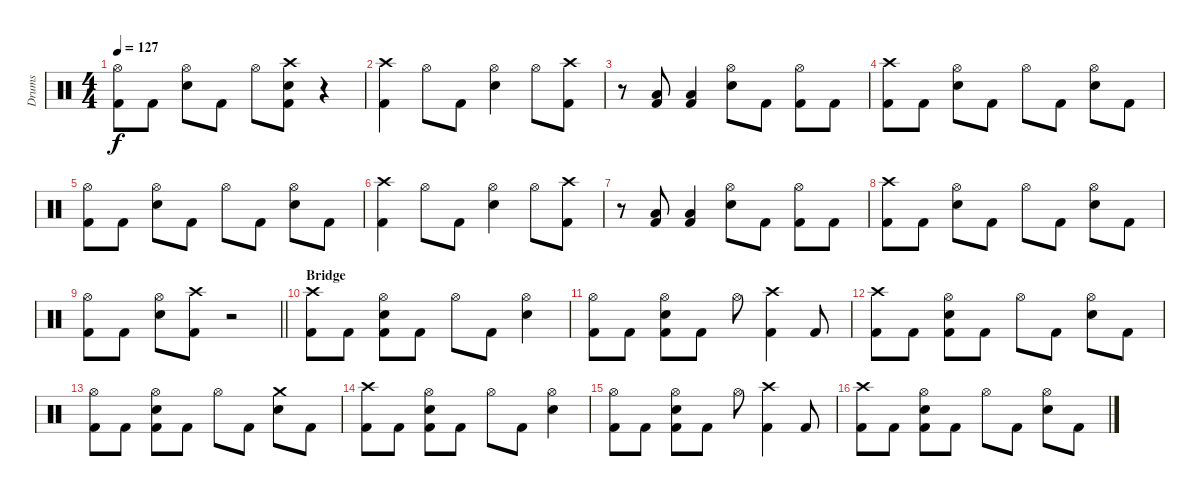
\track ("Drums" "Drums") {instrument percussion}
\staff {score}
\articulation defaults
\ts (4 4)
\tempo 127
\clef neutral
\ks c
("Hi-Hat (open)" "Kick (hit) 2").8{dy f} "Kick (hit) 2".8 ("Hi-Hat (open)" "Electric Snare (hit)").8 "Kick (hit) 2".8 "Hi-Hat (open)".8 ("Crash high (hit)" "Electric Snare (hit)" "Kick (hit) 2").8 r.4 |
("Crash high (hit)" "Kick (hit) 2").4 "Hi-Hat (open)".8 "Kick (hit) 2".8 ("Hi-Hat (open)" "Electric Snare (hit)").4 "Hi-Hat (open)".8 ("Crash high (hit)" "Kick (hit) 2").8 |
r.8 ("Low Floor Tom (hit)" "Kick (hit) 2").8 ("Low Floor Tom (hit)" "Kick (hit) 2").4 ("Hi-Hat (open)" "Electric Snare (hit)").8 "Kick (hit) 2".8 ("Hi-Hat (open)" "Kick (hit) 2").8 "Kick (hit) 2".8 |
("Crash high (hit)" "Kick (hit) 2").8 "Kick (hit) 2".8 ("Hi-Hat (open)" "Electric Snare (hit)").8 "Kick (hit) 2".8 "Hi-Hat (open)".8 "Kick (hit) 2".8 ("Hi-Hat (open)" "Electric Snare (hit)").8 "Kick (hit) 2".8 |
("Hi-Hat (open)" "Kick (hit) 2").8 "Kick (hit) 2".8 ("Hi-Hat (open)" "Electric Snare (hit)").8 "Kick (hit) 2".8 "Hi-Hat (open)".8 "Kick (hit) 2".8 ("Hi-Hat (open)" "Electric Snare (hit)").8 "Kick (hit) 2".8 |
("Crash high (hit)" "Kick (hit) 2").4 "Hi-Hat (open)".8 "Kick (hit) 2".8 ("Hi-Hat (open)" "Electric Snare (hit)").4 "Hi-Hat (open)".8 ("Crash high (hit)" "Kick (hit) 2").8 |
r.8 ("Low Floor Tom (hit)" "Kick (hit) 2").8 ("Low Floor Tom (hit)" "Kick (hit) 2").4 ("Hi-Hat (open)" "Electric Snare (hit)").8 "Kick (hit) 2".8 ("Hi-Hat (open)" "Kick (hit) 2").8 "Kick (hit) 2".8 |
("Crash high (hit)" "Kick (hit) 2").8 "Kick (hit) 2".8 ("Hi-Hat (open)" "Electric Snare (hit)").8 "Kick (hit) 2".8 "Hi-Hat (open)".8 "Kick (hit) 2".8 ("Hi-Hat (open)" "Electric Snare (hit)").8 "Kick (hit) 2".8 |
\barLineRight lightlight
("Hi-Hat (open)" "Kick (hit) 2").8 "Kick (hit) 2".8 ("Hi-Hat (open)" "Electric Snare (hit)").8 ("Crash high (hit)" "Kick (hit) 2").8 r.2 |
\section ("" "Bridge")
("Crash high (hit)" "Kick (hit) 2").8 "Kick (hit) 2".8 ("Hi-Hat (open)" "Electric Snare (hit)" "Kick (hit) 2").8 "Kick (hit) 2".8 "Hi-Hat (open)".8 "Kick (hit) 2".8 ("Hi-Hat (open)" "Electric Snare (hit)").4 |
("Hi-Hat (open)" "Kick (hit) 2").8 "Kick (hit) 2".8 ("Hi-Hat (open)" "Electric Snare (hit)" "Kick (hit) 2").8 "Kick (hit) 2".8 "Hi-Hat (open)".8 ("Crash high (hit)" "Kick (hit) 2").4 "Kick (hit) 2".8 |
("Crash high (hit)" "Kick (hit) 2").8 "Kick (hit) 2".8 ("Hi-Hat (open)" "Electric Snare (hit)" "Kick (hit) 2").8 "Kick (hit) 2".8 "Hi-Hat (open)".8 "Kick (hit) 2".8 ("Hi-Hat (open)" "Electric Snare (hit)").8 "Kick (hit) 2".8 |
("Hi-Hat (open)" "Kick (hit) 2").8 "Kick (hit) 2".8 ("Hi-Hat (open)" "Electric Snare (hit)" "Kick (hit) 2").8 "Kick (hit) 2".8 "Hi-Hat (open)".8 "Kick (hit) 2".8 ("Crash medium (hit)" "Electric Snare (hit)").8 "Kick (hit) 2".8 |
("Crash high (hit)" "Kick (hit) 2").8 "Kick (hit) 2".8 ("Hi-Hat (open)" "Electric Snare (hit)" "Kick (hit) 2").8 "Kick (hit) 2".8 "Hi-Hat (open)".8 "Kick (hit) 2".8 ("Hi-Hat (open)" "Electric Snare (hit)").4 |
("Hi-Hat (open)" "Kick (hit) 2").8 "Kick (hit) 2".8 ("Hi-Hat (open)" "Electric Snare (hit)" "Kick (hit) 2").8 "Kick (hit) 2".8 "Hi-Hat (open)".8 ("Crash high (hit)" "Kick (hit) 2").4 "Kick (hit) 2".8 |
("Crash high (hit)" "Kick (hit) 2").8 "Kick (hit) 2".8 ("Hi-Hat (open)" "Electric Snare (hit)" "Kick (hit) 2").8 "Kick (hit) 2".8 "Hi-Hat (open)".8 "Kick (hit) 2".8 ("Hi-Hat (open)" "Electric Snare (hit)").8 "Kick (hit) 2".8
